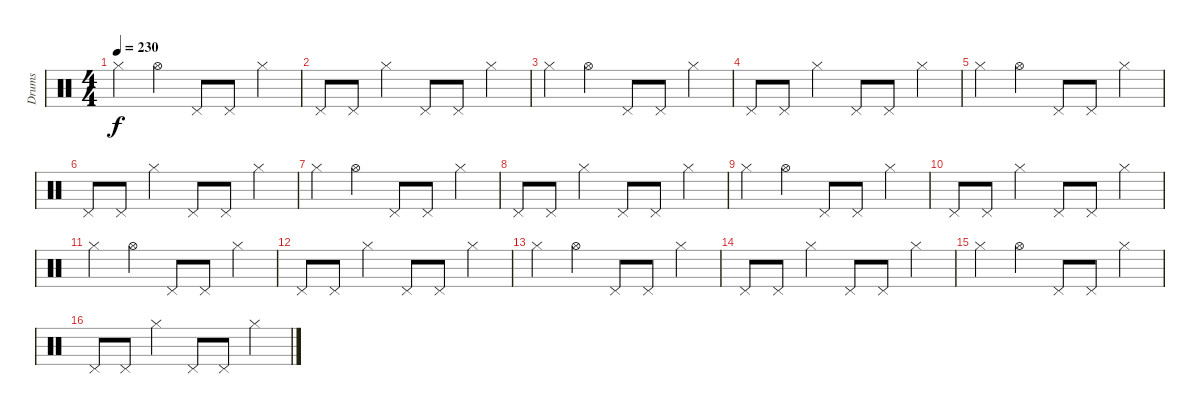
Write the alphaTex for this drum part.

\track ("Drums" "Drums") {instrument percussion}
\staff {score}
\articulation defaults
\ts (4 4)
\tempo 230
\clef neutral
\ks c "Hi-Hat (closed)".4{dy f} "Hi-Hat (open)".4 "Pedal Hi-Hat (hit)".8 "Pedal Hi-Hat (hit)".8 "Hi-Hat (closed)".4
|
"Pedal Hi-Hat (hit)".8 "Pedal Hi-Hat (hit)".8 "Hi-Hat (closed)".4 "Pedal Hi-Hat (hit)".8 "Pedal Hi-Hat (hit)".8 "Hi-Hat (closed)".4 |
"Hi-Hat (closed)".4 "Hi-Hat (open)".4 "Pedal Hi-Hat (hit)".8 "Pedal Hi-Hat (hit)".8 "Hi-Hat (closed)".4 |
"Pedal Hi-Hat (hit)".8 "Pedal Hi-Hat (hit)".8 "Hi-Hat (closed)".4 "Pedal Hi-Hat (hit)".8 "Pedal Hi-Hat (hit)".8 "Hi-Hat (closed)".4 |
"Hi-Hat (closed)".4 "Hi-Hat (open)".4 "Pedal Hi-Hat (hit)".8 "Pedal Hi-Hat (hit)".8 "Hi-Hat (closed)".4 |
"Pedal Hi-Hat (hit)".8 "Pedal Hi-Hat (hit)".8 "Hi-Hat (closed)".4 "Pedal Hi-Hat (hit)".8 "Pedal Hi-Hat (hit)".8 "Hi-Hat (closed)".4 |
"Hi-Hat (closed)".4 "Hi-Hat (open)".4 "Pedal Hi-Hat (hit)".8 "Pedal Hi-Hat (hit)".8 "Hi-Hat (closed)".4 |
"Pedal Hi-Hat (hit)".8 "Pedal Hi-Hat (hit)".8 "Hi-Hat (closed)".4 "Pedal Hi-Hat (hit)".8 "Pedal Hi-Hat (hit)".8 "Hi-Hat (closed)".4 |
"Hi-Hat (closed)".4 "Hi-Hat (open)".4 "Pedal Hi-Hat (hit)".8 "Pedal Hi-Hat (hit)".8 "Hi-Hat (closed)".4 |
"Pedal Hi-Hat (hit)".8 "Pedal Hi-Hat (hit)".8 "Hi-Hat (closed)".4 "Pedal Hi-Hat (hit)".8 "Pedal Hi-Hat (hit)".8 "Hi-Hat (closed)".4 |
"Hi-Hat (closed)".4 "Hi-Hat (open)".4 "Pedal Hi-Hat (hit)".8 "Pedal Hi-Hat (hit)".8 "Hi-Hat (closed)".4 |
"Pedal Hi-Hat (hit)".8 "Pedal Hi-Hat (hit)".8 "Hi-Hat (closed)".4 "Pedal Hi-Hat (hit)".8 "Pedal Hi-Hat (hit)".8 "Hi-Hat (closed)".4 |
"Hi-Hat (closed)".4 "Hi-Hat (open)".4 "Pedal Hi-Hat (hit)".8 "Pedal Hi-Hat (hit)".8 "Hi-Hat (closed)".4 |
"Pedal Hi-Hat (hit)".8 "Pedal Hi-Hat (hit)".8 "Hi-Hat (closed)".4 "Pedal Hi-Hat (hit)".8 "Pedal Hi-Hat (hit)".8 "Hi-Hat (closed)".4 |
"Hi-Hat (closed)".4 "Hi-Hat (open)".4 "Pedal Hi-Hat (hit)".8 "Pedal Hi-Hat (hit)".8 "Hi-Hat (closed)".4 |
"Pedal Hi-Hat (hit)".8 "Pedal Hi-Hat (hit)".8 "Hi-Hat (closed)".4 "Pedal Hi-Hat (hit)".8 "Pedal Hi-Hat (hit)".8 "Hi-Hat (closed)".4
